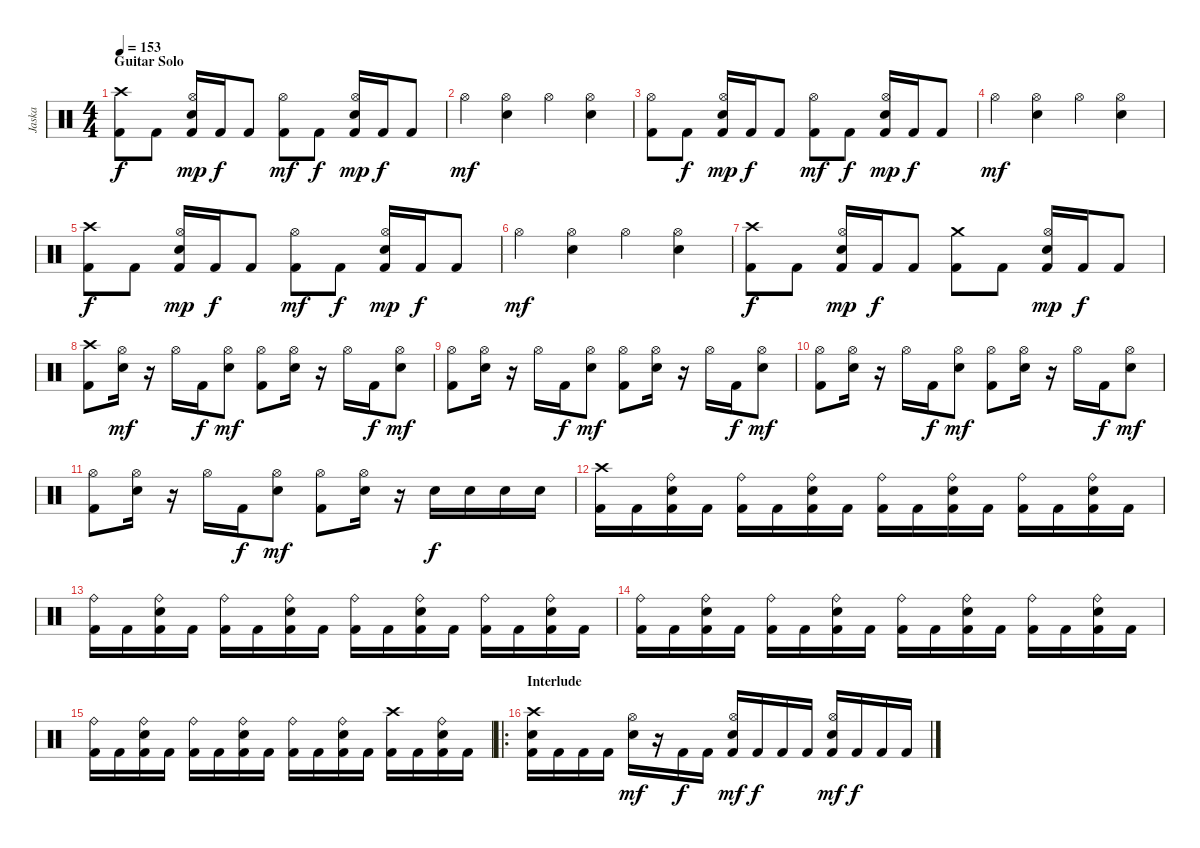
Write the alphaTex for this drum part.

\track ("Jaska" "Jaska") {instrument percussion}
\staff {score}
\articulation defaults
\ts (4 4)
\section ("" "Guitar Solo")
\tempo 153
\clef neutral
\ks c
("Crash high (hit)" "Kick (hit) 2").8{dy f} "Kick (hit) 2".8 ("Hi-Hat (open)" "Electric Snare (hit)" "Kick (hit) 2").16{dy mp} "Kick (hit) 2".16{dy f} "Kick (hit) 2".8 ("Hi-Hat (open)" "Kick (hit) 2").8{dy mf} "Kick (hit) 2".8{dy f} ("Hi-Hat (open)" "Electric Snare (hit)" "Kick (hit) 2").16{dy mp} "Kick (hit) 2".16{dy f} "Kick (hit) 2".8 |
"Hi-Hat (open)".4{dy mf} ("Hi-Hat (open)" "Electric Snare (hit)").4 "Hi-Hat (open)".4 ("Hi-Hat (open)" "Electric Snare (hit)").4 |
("Hi-Hat (open)" "Kick (hit) 2").8 "Kick (hit) 2".8{dy f} ("Hi-Hat (open)" "Electric Snare (hit)" "Kick (hit) 2").16{dy mp} "Kick (hit) 2".16{dy f} "Kick (hit) 2".8 ("Hi-Hat (open)" "Kick (hit) 2").8{dy mf} "Kick (hit) 2".8{dy f} ("Hi-Hat (open)" "Electric Snare (hit)" "Kick (hit) 2").16{dy mp} "Kick (hit) 2".16{dy f} "Kick (hit) 2".8 |
"Hi-Hat (open)".4{dy mf} ("Hi-Hat (open)" "Electric Snare (hit)").4 "Hi-Hat (open)".4 ("Hi-Hat (open)" "Electric Snare (hit)").4 |
("Crash high (hit)" "Kick (hit) 2").8{dy f} "Kick (hit) 2".8 ("Hi-Hat (open)" "Electric Snare (hit)" "Kick (hit) 2").16{dy mp} "Kick (hit) 2".16{dy f} "Kick (hit) 2".8 ("Hi-Hat (open)" "Kick (hit) 2").8{dy mf} "Kick (hit) 2".8{dy f} ("Hi-Hat (open)" "Electric Snare (hit)" "Kick (hit) 2").16{dy mp} "Kick (hit) 2".16{dy f} "Kick (hit) 2".8 |
"Hi-Hat (open)".4{dy mf} ("Hi-Hat (open)" "Electric Snare (hit)").4 "Hi-Hat (open)".4 ("Hi-Hat (open)" "Electric Snare (hit)").4 |
("Crash high (hit)" "Kick (hit) 2").8{dy f} "Kick (hit) 2".8 ("Hi-Hat (open)" "Electric Snare (hit)" "Kick (hit) 2").16{dy mp} "Kick (hit) 2".16{dy f} "Kick (hit) 2".8 ("Crash medium (hit)" "Kick (hit) 2").8 "Kick (hit) 2".8 ("Hi-Hat (open)" "Electric Snare (hit)" "Kick (hit) 2").16{dy mp} "Kick (hit) 2".16{dy f} "Kick (hit) 2".8 |
("Crash high (hit)" "Kick (hit) 2").8 ("Hi-Hat (open)" "Electric Snare (hit)").16{dy mf} r.16 "Hi-Hat (open)".16 "Kick (hit) 2".16{dy f} ("Hi-Hat (open)" "Electric Snare (hit)").8{dy mf} ("Hi-Hat (open)" "Kick (hit) 2").8 ("Hi-Hat (open)" "Electric Snare (hit)").16 r.16 "Hi-Hat (open)".16 "Kick (hit) 2".16{dy f} ("Hi-Hat (open)" "Electric Snare (hit)").8{dy mf} |
("Hi-Hat (open)" "Kick (hit) 2").8 ("Hi-Hat (open)" "Electric Snare (hit)").16 r.16 "Hi-Hat (open)".16 "Kick (hit) 2".16{dy f} ("Hi-Hat (open)" "Electric Snare (hit)").8{dy mf} ("Hi-Hat (open)" "Kick (hit) 2").8 ("Hi-Hat (open)" "Electric Snare (hit)").16 r.16 "Hi-Hat (open)".16 "Kick (hit) 2".16{dy f} ("Hi-Hat (open)" "Electric Snare (hit)").8{dy mf} |
("Hi-Hat (open)" "Kick (hit) 2").8 ("Hi-Hat (open)" "Electric Snare (hit)").16 r.16 "Hi-Hat (open)".16 "Kick (hit) 2".16{dy f} ("Hi-Hat (open)" "Electric Snare (hit)").8{dy mf} ("Hi-Hat (open)" "Kick (hit) 2").8 ("Hi-Hat (open)" "Electric Snare (hit)").16 r.16 "Hi-Hat (open)".16 "Kick (hit) 2".16{dy f} ("Hi-Hat (open)" "Electric Snare (hit)").8{dy mf} |
("Hi-Hat (open)" "Kick (hit) 2").8 ("Hi-Hat (open)" "Electric Snare (hit)").16 r.16 "Hi-Hat (open)".16 "Kick (hit) 2".16{dy f} ("Hi-Hat (open)" "Electric Snare (hit)").8{dy mf} ("Hi-Hat (open)" "Kick (hit) 2").8 ("Hi-Hat (open)" "Electric Snare (hit)").16 r.16 "Electric Snare (hit)".16{dy f} "Electric Snare (hit)".16 "Electric Snare (hit)".16 "Electric Snare (hit)".16 |
("Crash high (hit)" "Kick (hit) 2").16 "Kick (hit) 2".16 ("Ride (bell)" "Electric Snare (hit)" "Kick (hit) 2").16 "Kick (hit) 2".16 ("Ride (bell)" "Kick (hit) 2").16 "Kick (hit) 2".16 ("Ride (bell)" "Electric Snare (hit)" "Kick (hit) 2").16 "Kick (hit) 2".16 ("Ride (bell)" "Kick (hit) 2").16 "Kick (hit) 2".16 ("Ride (bell)" "Electric Snare (hit)" "Kick (hit) 2").16 "Kick (hit) 2".16 ("Ride (bell)" "Kick (hit) 2").16 "Kick (hit) 2".16 ("Ride (bell)" "Electric Snare (hit)" "Kick (hit) 2").16 "Kick (hit) 2".16 |
("Ride (bell)" "Kick (hit) 2").16 "Kick (hit) 2".16 ("Ride (bell)" "Electric Snare (hit)" "Kick (hit) 2").16 "Kick (hit) 2".16 ("Ride (bell)" "Kick (hit) 2").16 "Kick (hit) 2".16 ("Ride (bell)" "Electric Snare (hit)" "Kick (hit) 2").16 "Kick (hit) 2".16 ("Ride (bell)" "Kick (hit) 2").16 "Kick (hit) 2".16 ("Ride (bell)" "Electric Snare (hit)" "Kick (hit) 2").16 "Kick (hit) 2".16 ("Ride (bell)" "Kick (hit) 2").16 "Kick (hit) 2".16 ("Ride (bell)" "Electric Snare (hit)" "Kick (hit) 2").16 "Kick (hit) 2".16 |
("Ride (bell)" "Kick (hit) 2").16 "Kick (hit) 2".16 ("Ride (bell)" "Electric Snare (hit)" "Kick (hit) 2").16 "Kick (hit) 2".16 ("Ride (bell)" "Kick (hit) 2").16 "Kick (hit) 2".16 ("Ride (bell)" "Electric Snare (hit)" "Kick (hit) 2").16 "Kick (hit) 2".16 ("Ride (bell)" "Kick (hit) 2").16 "Kick (hit) 2".16 ("Ride (bell)" "Electric Snare (hit)" "Kick (hit) 2").16 "Kick (hit) 2".16 ("Ride (bell)" "Kick (hit) 2").16 "Kick (hit) 2".16 ("Ride (bell)" "Electric Snare (hit)" "Kick (hit) 2").16 "Kick (hit) 2".16 |
("Ride (bell)" "Kick (hit) 2").16 "Kick (hit) 2".16 ("Ride (bell)" "Electric Snare (hit)" "Kick (hit) 2").16 "Kick (hit) 2".16 ("Ride (bell)" "Kick (hit) 2").16 "Kick (hit) 2".16 ("Ride (bell)" "Electric Snare (hit)" "Kick (hit) 2").16 "Kick (hit) 2".16 ("Ride (bell)" "Kick (hit) 2").16 "Kick (hit) 2".16 ("Ride (bell)" "Electric Snare (hit)" "Kick (hit) 2").16 "Kick (hit) 2".16 ("Crash high (hit)" "Kick (hit) 2").16 "Kick (hit) 2".16 ("Ride (bell)" "Electric Snare (hit)" "Kick (hit) 2").16 "Kick (hit) 2".16 |
\ro
\section ("" "Interlude")
("Crash high (hit)" "Electric Snare (hit)" "Kick (hit) 2").16 "Kick (hit) 2".16 "Kick (hit) 2".16 "Kick (hit) 2".16 ("Hi-Hat (open)" "Electric Snare (hit)").16{dy mf} r.16 "Kick (hit) 2".16{dy f} "Kick (hit) 2".16 ("Hi-Hat (open)" "Electric Snare (hit)" "Kick (hit) 2").16{dy mf} "Kick (hit) 2".16{dy f} "Kick (hit) 2".16 "Kick (hit) 2".16 ("Hi-Hat (open)" "Electric Snare (hit)" "Kick (hit) 2").16{dy mf} "Kick (hit) 2".16{dy f} "Kick (hit) 2".16 "Kick (hit) 2".16
